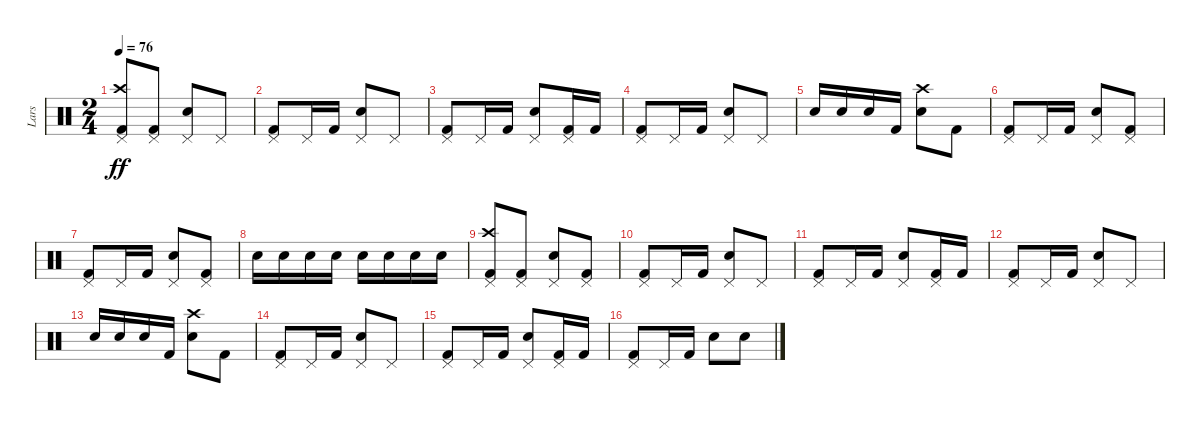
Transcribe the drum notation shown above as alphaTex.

\track ("Lars" "Lars") {instrument percussion}
\staff {score}
\articulation defaults
\ts (2 4)
\tempo 76
\clef neutral
\ks c
("Pedal Hi-Hat (hit)" "Crash high (hit)" "Kick (hit) 2").8{dy ff} ("Pedal Hi-Hat (hit)" "Kick (hit) 2").8 ("Pedal Hi-Hat (hit)" "Snare (hit) 2").8 "Pedal Hi-Hat (hit)".8 |
("Pedal Hi-Hat (hit)" "Kick (hit) 2").8 "Pedal Hi-Hat (hit)".16 "Kick (hit) 2".16 ("Pedal Hi-Hat (hit)" "Snare (hit) 2").8 "Pedal Hi-Hat (hit)".8 |
("Pedal Hi-Hat (hit)" "Kick (hit) 2").8 "Pedal Hi-Hat (hit)".16 "Kick (hit) 2".16 ("Pedal Hi-Hat (hit)" "Snare (hit) 2").8 ("Pedal Hi-Hat (hit)" "Kick (hit) 2").16 "Kick (hit) 2".16 |
("Pedal Hi-Hat (hit)" "Kick (hit) 2").8 "Pedal Hi-Hat (hit)".16 "Kick (hit) 2".16 ("Pedal Hi-Hat (hit)" "Snare (hit) 2").8 "Pedal Hi-Hat (hit)".8 |
"Snare (hit) 2".16 "Snare (hit) 2".16 "Snare (hit) 2".16 "Kick (hit) 2".16 ("Crash high (hit)" "Snare (hit) 2").8 "Kick (hit) 2".8 |
("Pedal Hi-Hat (hit)" "Kick (hit) 2").8 "Pedal Hi-Hat (hit)".16 "Kick (hit) 2".16 ("Pedal Hi-Hat (hit)" "Snare (hit) 2").8 ("Pedal Hi-Hat (hit)" "Kick (hit) 2").8 |
("Pedal Hi-Hat (hit)" "Kick (hit) 2").8 "Pedal Hi-Hat (hit)".16 "Kick (hit) 2".16 ("Pedal Hi-Hat (hit)" "Snare (hit) 2").8 ("Pedal Hi-Hat (hit)" "Kick (hit) 2").8 |
"Snare (hit) 2".16 "Snare (hit) 2".16 "Snare (hit) 2".16 "Snare (hit) 2".16 "Snare (hit) 2".16 "Snare (hit) 2".16 "Snare (hit) 2".16 "Snare (hit) 2".16 |
("Pedal Hi-Hat (hit)" "Crash high (hit)" "Kick (hit) 2").8 ("Pedal Hi-Hat (hit)" "Kick (hit) 2").8 ("Pedal Hi-Hat (hit)" "Snare (hit) 2").8 ("Pedal Hi-Hat (hit)" "Kick (hit) 2").8 |
("Pedal Hi-Hat (hit)" "Kick (hit) 2").8 "Pedal Hi-Hat (hit)".16 "Kick (hit) 2".16 ("Pedal Hi-Hat (hit)" "Snare (hit) 2").8 "Pedal Hi-Hat (hit)".8 |
("Pedal Hi-Hat (hit)" "Kick (hit) 2").8 "Pedal Hi-Hat (hit)".16 "Kick (hit) 2".16 ("Pedal Hi-Hat (hit)" "Snare (hit) 2").8 ("Pedal Hi-Hat (hit)" "Kick (hit) 2").16 "Kick (hit) 2".16 |
("Pedal Hi-Hat (hit)" "Kick (hit) 2").8 "Pedal Hi-Hat (hit)".16 "Kick (hit) 2".16 ("Pedal Hi-Hat (hit)" "Snare (hit) 2").8 "Pedal Hi-Hat (hit)".8 |
"Snare (hit) 2".16 "Snare (hit) 2".16 "Snare (hit) 2".16 "Kick (hit) 2".16 ("Crash high (hit)" "Snare (hit) 2").8 "Kick (hit) 2".8 |
("Pedal Hi-Hat (hit)" "Kick (hit) 2").8 "Pedal Hi-Hat (hit)".16 "Kick (hit) 2".16 ("Pedal Hi-Hat (hit)" "Snare (hit) 2").8 "Pedal Hi-Hat (hit)".8 |
("Pedal Hi-Hat (hit)" "Kick (hit) 2").8 "Pedal Hi-Hat (hit)".16 "Kick (hit) 2".16 ("Pedal Hi-Hat (hit)" "Snare (hit) 2").8 ("Pedal Hi-Hat (hit)" "Kick (hit) 2").16 "Kick (hit) 2".16 |
("Pedal Hi-Hat (hit)" "Kick (hit) 2").8 "Pedal Hi-Hat (hit)".16 "Kick (hit) 2".16 "Snare (hit) 2".8 "Snare (hit) 2".8
